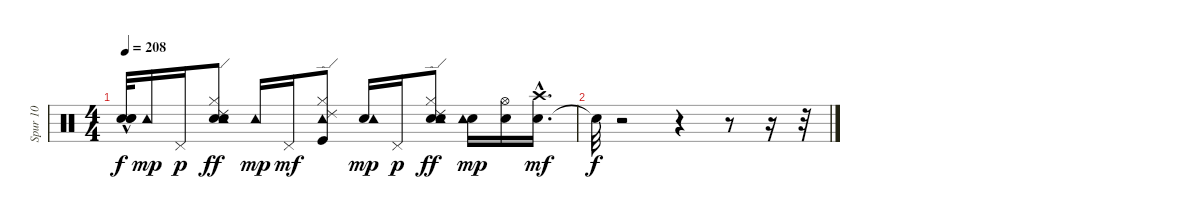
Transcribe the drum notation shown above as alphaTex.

\track ("Spur 10" "Spur 10") {instrument percussion}
\staff {score}
\articulation defaults
\ts (4 4)
\tempo 208
\clef neutral
\ks c
("Snare (hit)"{t} "Snare (hit)"{hac t} "Snare (hit)"{t}).32{dy f} "Tambourine (hit)".16{dy mp} "Pedal Hi-Hat (hit)".16{dy p} ("Hand Clap (hit)" "Tambourine (hit)" "Hi-Hat (closed)" "Electric Snare (hit)" "Ride (edge) 2").8{dy ff} "Tambourine (hit)".16{dy mp} "Pedal Hi-Hat (hit)".16{dy mf} ("Tambourine (hit)" "Hi-Hat (closed)" "Kick (hit)" "Ride (edge) 2").8 ("Electric Snare (hit)" "Tambourine (hit)").16{dy mp} "Pedal Hi-Hat (hit)".16{dy p} ("Hand Clap (hit)" "Tambourine (hit)" "Hi-Hat (closed)" "Electric Snare (hit)" "Ride (edge) 2").8{dy ff} ("Electric Snare (hit)" "Tambourine (hit)").16{dy mp} ("Electric Snare (hit)" "Hi-Hat (open)").16 ("Snare (hit) 2"{hac} "Crash high (hit)"{hac}).16{d dy mf} |
"Snare (hit)"{t}.32{dy f} r.2 r.4 r.8 r.16 r.32
